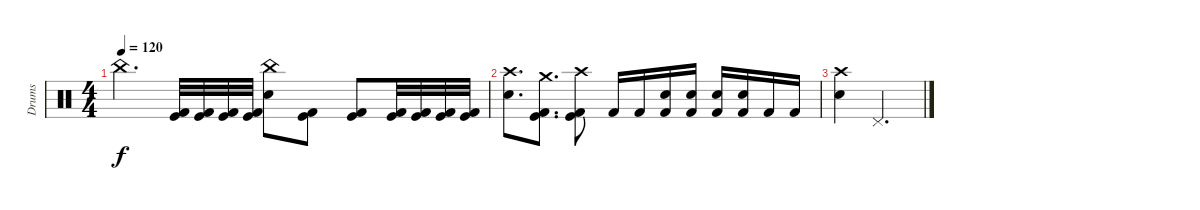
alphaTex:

\track ("Drums" "Drums") {instrument percussion}
\staff {score}
\articulation defaults
\ts (4 4)
\tempo 120
\clef neutral
\ks c "China (hit)".4{d dy f}
("Kick (hit)" "Kick (hit) 2").32 ("Kick (hit)" "Kick (hit) 2").32 ("Kick (hit)" "Kick (hit) 2").32 ("Kick (hit)" "Kick (hit) 2").32 ("China (hit)" "Electric Snare (hit)").8 ("Kick (hit)" "Kick (hit) 2").8 ("Kick (hit)" "Kick (hit) 2").8 ("Kick (hit)" "Kick (hit) 2").32 ("Kick (hit)" "Kick (hit) 2").32 ("Kick (hit)" "Kick (hit) 2").32 ("Kick (hit)" "Kick (hit) 2").32 |
("Crash high (hit)" "Electric Snare (hit)").8{d} ("Crash medium (hit)" "Kick (hit)" "Kick (hit) 2").8{d} ("Crash high (hit)" "Kick (hit)" "Kick (hit) 2").8 "Kick (hit) 2".16 "Kick (hit) 2".16 ("Electric Snare (hit)" "Kick (hit) 2").16 ("Electric Snare (hit)" "Kick (hit) 2").16 ("Electric Snare (hit)" "Kick (hit) 2").16 ("Electric Snare (hit)" "Kick (hit) 2").16 "Kick (hit) 2".16 "Kick (hit) 2".16 |
("Crash high (hit)" "Electric Snare (hit)").4 "Pedal Hi-Hat (hit)".2{d}
